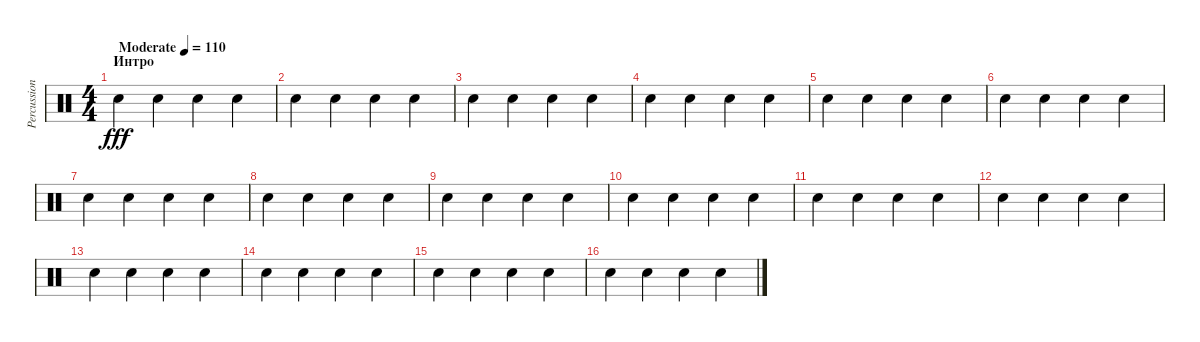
\track ("Percussion" "Percussion") {mute instrument percussion}
\staff {score}
\articulation defaults
\ts (4 4)
\section ("" "Интро")
\tempo (110 "Moderate")
\clef neutral
\ks c "Snare (hit) 2".4{dy fff} "Snare (hit) 2".4 "Snare (hit) 2".4 "Snare (hit) 2".4
|
"Snare (hit) 2".4 "Snare (hit) 2".4 "Snare (hit) 2".4 "Snare (hit) 2".4 |
"Snare (hit) 2".4 "Snare (hit) 2".4 "Snare (hit) 2".4 "Snare (hit) 2".4 |
"Snare (hit) 2".4 "Snare (hit) 2".4 "Snare (hit) 2".4 "Snare (hit) 2".4 |
"Snare (hit) 2".4 "Snare (hit) 2".4 "Snare (hit) 2".4 "Snare (hit) 2".4 |
"Snare (hit) 2".4 "Snare (hit) 2".4 "Snare (hit) 2".4 "Snare (hit) 2".4 |
"Snare (hit) 2".4 "Snare (hit) 2".4 "Snare (hit) 2".4 "Snare (hit) 2".4 |
"Snare (hit) 2".4 "Snare (hit) 2".4 "Snare (hit) 2".4 "Snare (hit) 2".4 |
"Snare (hit) 2".4 "Snare (hit) 2".4 "Snare (hit) 2".4 "Snare (hit) 2".4 |
"Snare (hit) 2".4 "Snare (hit) 2".4 "Snare (hit) 2".4 "Snare (hit) 2".4 |
"Snare (hit) 2".4 "Snare (hit) 2".4 "Snare (hit) 2".4 "Snare (hit) 2".4 |
"Snare (hit) 2".4 "Snare (hit) 2".4 "Snare (hit) 2".4 "Snare (hit) 2".4 |
"Snare (hit) 2".4 "Snare (hit) 2".4 "Snare (hit) 2".4 "Snare (hit) 2".4 |
"Snare (hit) 2".4 "Snare (hit) 2".4 "Snare (hit) 2".4 "Snare (hit) 2".4 |
"Snare (hit) 2".4 "Snare (hit) 2".4 "Snare (hit) 2".4 "Snare (hit) 2".4 |
"Snare (hit) 2".4 "Snare (hit) 2".4 "Snare (hit) 2".4 "Snare (hit) 2".4
